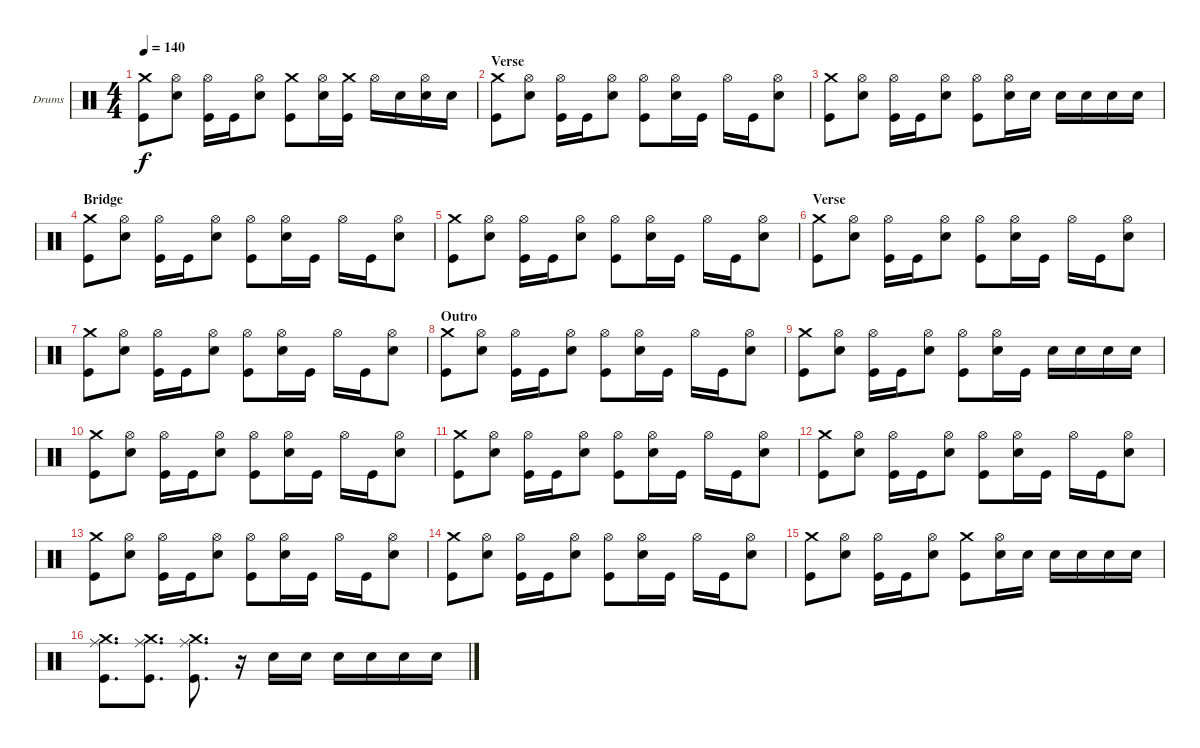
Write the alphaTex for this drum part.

\defaultSystemsLayout 4
\bracketExtendMode nobrackets
\firstSystemTrackNameOrientation horizontal
\otherSystemsTrackNameOrientation horizontal
\track ("Phil Taylor" "Drums") {instrument percussion}
\staff {score}
\articulation defaults
\ts (4 4)
\tempo 140
\clef neutral
\ks c
("Crash medium (hit)" "Kick (hit)").8{dy f} ("Hi-Hat (open)" "Snare (hit) 2").8 ("Hi-Hat (open)" "Kick (hit)").16 "Kick (hit)".16 ("Hi-Hat (open)" "Snare (hit) 2").8 ("Crash medium (hit)" "Kick (hit)").8 ("Hi-Hat (open)" "Snare (hit) 2").16 ("Crash medium (hit)" "Kick (hit)").16 "Hi-Hat (open)".16 "Snare (hit) 2".16 ("Hi-Hat (open)" "Snare (hit) 2").16 "Snare (hit) 2".16 |
\section ("" "Verse")
("Crash medium (hit)" "Kick (hit)").8 ("Hi-Hat (open)" "Snare (hit) 2").8 ("Hi-Hat (open)" "Kick (hit)").16 "Kick (hit)".16 ("Hi-Hat (open)" "Snare (hit) 2").8 ("Hi-Hat (open)" "Kick (hit)").8 ("Hi-Hat (open)" "Snare (hit) 2").16 "Kick (hit)".16 "Hi-Hat (open)".16 "Kick (hit)".16 ("Hi-Hat (open)" "Snare (hit) 2").8 |
("Crash medium (hit)" "Kick (hit)").8 ("Hi-Hat (open)" "Snare (hit) 2").8 ("Hi-Hat (open)" "Kick (hit)").16 "Kick (hit)".16 ("Hi-Hat (open)" "Snare (hit) 2").8 ("Hi-Hat (open)" "Kick (hit)").8 ("Hi-Hat (open)" "Snare (hit) 2").16 "Snare (hit) 2".16 "Snare (hit) 2".16 "Snare (hit) 2".16 "Snare (hit) 2".16 "Snare (hit) 2".16 |
\section ("" "Bridge")
("Crash medium (hit)" "Kick (hit)").8 ("Hi-Hat (open)" "Snare (hit) 2").8 ("Hi-Hat (open)" "Kick (hit)").16 "Kick (hit)".16 ("Hi-Hat (open)" "Snare (hit) 2").8 ("Hi-Hat (open)" "Kick (hit)").8 ("Hi-Hat (open)" "Snare (hit) 2").16 "Kick (hit)".16 "Hi-Hat (open)".16 "Kick (hit)".16 ("Hi-Hat (open)" "Snare (hit) 2").8 |
("Crash medium (hit)" "Kick (hit)").8 ("Hi-Hat (open)" "Snare (hit) 2").8 ("Hi-Hat (open)" "Kick (hit)").16 "Kick (hit)".16 ("Hi-Hat (open)" "Snare (hit) 2").8 ("Hi-Hat (open)" "Kick (hit)").8 ("Hi-Hat (open)" "Snare (hit) 2").16 "Kick (hit)".16 "Hi-Hat (open)".16 "Kick (hit)".16 ("Hi-Hat (open)" "Snare (hit) 2").8 |
\section ("" "Verse")
("Crash medium (hit)" "Kick (hit)").8 ("Hi-Hat (open)" "Snare (hit) 2").8 ("Hi-Hat (open)" "Kick (hit)").16 "Kick (hit)".16 ("Hi-Hat (open)" "Snare (hit) 2").8 ("Hi-Hat (open)" "Kick (hit)").8 ("Hi-Hat (open)" "Snare (hit) 2").16 "Kick (hit)".16 "Hi-Hat (open)".16 "Kick (hit)".16 ("Hi-Hat (open)" "Snare (hit) 2").8 |
("Crash medium (hit)" "Kick (hit)").8 ("Hi-Hat (open)" "Snare (hit) 2").8 ("Hi-Hat (open)" "Kick (hit)").16 "Kick (hit)".16 ("Hi-Hat (open)" "Snare (hit) 2").8 ("Hi-Hat (open)" "Kick (hit)").8 ("Hi-Hat (open)" "Snare (hit) 2").16 "Kick (hit)".16 "Hi-Hat (open)".16 "Kick (hit)".16 ("Hi-Hat (open)" "Snare (hit) 2").8 |
\section ("" "Outro")
("Crash medium (hit)" "Kick (hit)").8 ("Hi-Hat (open)" "Snare (hit) 2").8 ("Hi-Hat (open)" "Kick (hit)").16 "Kick (hit)".16 ("Hi-Hat (open)" "Snare (hit) 2").8 ("Hi-Hat (open)" "Kick (hit)").8 ("Hi-Hat (open)" "Snare (hit) 2").16 "Kick (hit)".16 "Hi-Hat (open)".16 "Kick (hit)".16 ("Hi-Hat (open)" "Snare (hit) 2").8 |
("Crash medium (hit)" "Kick (hit)").8 ("Hi-Hat (open)" "Snare (hit) 2").8 ("Hi-Hat (open)" "Kick (hit)").16 "Kick (hit)".16 ("Hi-Hat (open)" "Snare (hit) 2").8 ("Hi-Hat (open)" "Kick (hit)").8 ("Hi-Hat (open)" "Snare (hit) 2").16 "Kick (hit)".16 "Snare (hit) 2".16 "Snare (hit) 2".16 "Snare (hit) 2".16 "Snare (hit) 2".16 |
("Crash medium (hit)" "Kick (hit)").8 ("Hi-Hat (open)" "Snare (hit) 2").8 ("Hi-Hat (open)" "Kick (hit)").16 "Kick (hit)".16 ("Hi-Hat (open)" "Snare (hit) 2").8 ("Hi-Hat (open)" "Kick (hit)").8 ("Hi-Hat (open)" "Snare (hit) 2").16 "Kick (hit)".16 "Hi-Hat (open)".16 "Kick (hit)".16 ("Hi-Hat (open)" "Snare (hit) 2").8 |
("Crash medium (hit)" "Kick (hit)").8 ("Hi-Hat (open)" "Snare (hit) 2").8 ("Hi-Hat (open)" "Kick (hit)").16 "Kick (hit)".16 ("Hi-Hat (open)" "Snare (hit) 2").8 ("Hi-Hat (open)" "Kick (hit)").8 ("Hi-Hat (open)" "Snare (hit) 2").16 "Kick (hit)".16 "Hi-Hat (open)".16 "Kick (hit)".16 ("Hi-Hat (open)" "Snare (hit) 2").8 |
("Crash medium (hit)" "Kick (hit)").8 ("Hi-Hat (open)" "Snare (hit) 2").8 ("Hi-Hat (open)" "Kick (hit)").16 "Kick (hit)".16 ("Hi-Hat (open)" "Snare (hit) 2").8 ("Hi-Hat (open)" "Kick (hit)").8 ("Hi-Hat (open)" "Snare (hit) 2").16 "Kick (hit)".16 "Hi-Hat (open)".16 "Kick (hit)".16 ("Hi-Hat (open)" "Snare (hit) 2").8 |
("Crash medium (hit)" "Kick (hit)").8 ("Hi-Hat (open)" "Snare (hit) 2").8 ("Hi-Hat (open)" "Kick (hit)").16 "Kick (hit)".16 ("Hi-Hat (open)" "Snare (hit) 2").8 ("Hi-Hat (open)" "Kick (hit)").8 ("Hi-Hat (open)" "Snare (hit) 2").16 "Kick (hit)".16 "Hi-Hat (open)".16 "Kick (hit)".16 ("Hi-Hat (open)" "Snare (hit) 2").8 |
("Crash medium (hit)" "Kick (hit)").8 ("Hi-Hat (open)" "Snare (hit) 2").8 ("Hi-Hat (open)" "Kick (hit)").16 "Kick (hit)".16 ("Hi-Hat (open)" "Snare (hit) 2").8 ("Hi-Hat (open)" "Kick (hit)").8 ("Hi-Hat (open)" "Snare (hit) 2").16 "Kick (hit)".16 "Hi-Hat (open)".16 "Kick (hit)".16 ("Hi-Hat (open)" "Snare (hit) 2").8 |
("Crash medium (hit)" "Kick (hit)").8 ("Hi-Hat (open)" "Snare (hit) 2").8 ("Hi-Hat (open)" "Kick (hit)").16 "Kick (hit)".16 ("Hi-Hat (open)" "Snare (hit) 2").8 ("Crash medium (hit)" "Kick (hit)").8 ("Hi-Hat (open)" "Snare (hit) 2").16 "Snare (hit) 2".16 "Snare (hit) 2".16 "Snare (hit) 2".16 "Snare (hit) 2".16 "Snare (hit) 2".16 |
("Crash medium (hit)" "Ride (middle)" "Kick (hit)").8{d} ("Crash medium (hit)" "Ride (middle)" "Kick (hit)").8{d} ("Crash medium (hit)" "Ride (middle)" "Kick (hit)").8{d} r.16 "Snare (hit) 2".16 "Snare (hit) 2".16 "Snare (hit) 2".16 "Snare (hit) 2".16 "Snare (hit) 2".16 "Snare (hit) 2".16
